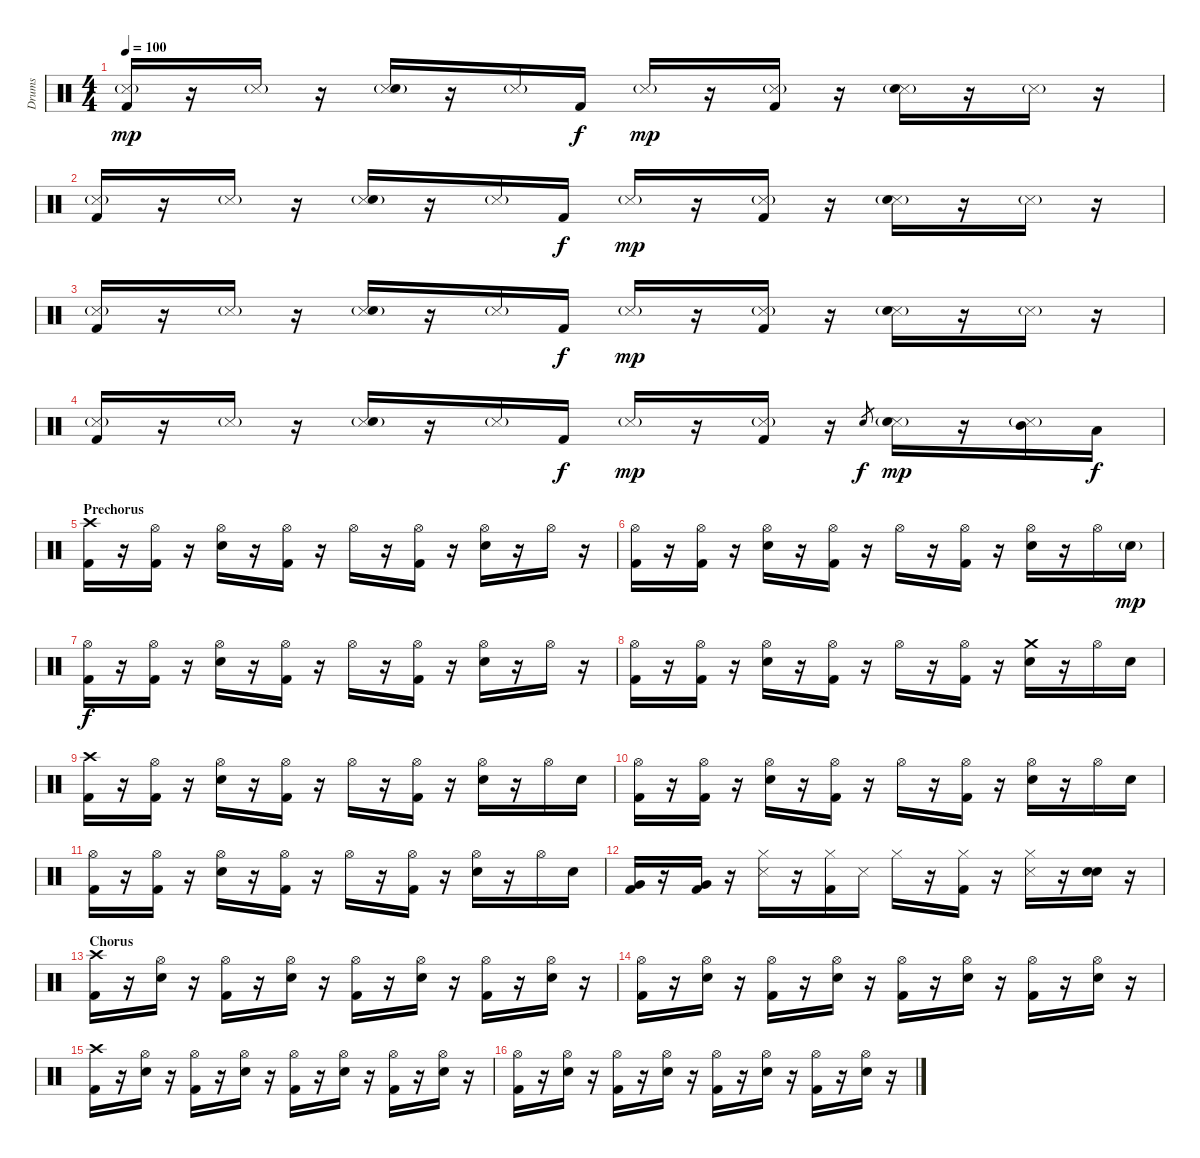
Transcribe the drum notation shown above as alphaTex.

\track ("Drums" "Drums") {instrument percussion}
\staff {score}
\articulation defaults
\ts (4 4)
\tempo 100
\clef neutral
\ks c
("Metronome (hit)"{g} "Kick (hit) 2").16{dy mp} r.16 "Metronome (hit)"{g}.16 r.16 ("Metronome (hit)"{g} "Electric Snare (hit)").16 r.16 "Metronome (hit)"{g}.16 "Kick (hit) 2".16{dy f} "Metronome (hit)"{g}.16{dy mp} r.16 ("Metronome (hit)"{g} "Kick (hit) 2").16 r.16 ("Metronome (hit)"{g} "Electric Snare (hit)").16 r.16 "Metronome (hit)"{g}.16 r.16 |
("Metronome (hit)"{g} "Kick (hit) 2").16 r.16 "Metronome (hit)"{g}.16 r.16 ("Metronome (hit)"{g} "Electric Snare (hit)").16 r.16 "Metronome (hit)"{g}.16 "Kick (hit) 2".16{dy f} "Metronome (hit)"{g}.16{dy mp} r.16 ("Metronome (hit)"{g} "Kick (hit) 2").16 r.16 ("Metronome (hit)"{g} "Electric Snare (hit)").16 r.16 "Metronome (hit)"{g}.16 r.16 |
("Metronome (hit)"{g} "Kick (hit) 2").16 r.16 "Metronome (hit)"{g}.16 r.16 ("Metronome (hit)"{g} "Electric Snare (hit)").16 r.16 "Metronome (hit)"{g}.16 "Kick (hit) 2".16{dy f} "Metronome (hit)"{g}.16{dy mp} r.16 ("Metronome (hit)"{g} "Kick (hit) 2").16 r.16 ("Metronome (hit)"{g} "Electric Snare (hit)").16 r.16 "Metronome (hit)"{g}.16 r.16 |
("Metronome (hit)"{g} "Kick (hit) 2").16 r.16 "Metronome (hit)"{g}.16 r.16 ("Metronome (hit)"{g} "Electric Snare (hit)").16 r.16 "Metronome (hit)"{g}.16 "Kick (hit) 2".16{dy f} "Metronome (hit)"{g}.16{dy mp} r.16 ("Metronome (hit)"{g} "Kick (hit) 2").16 r.16 "Electric Snare (hit)".8{gr dy f} ("Metronome (hit)"{g} "Electric Snare (hit)").16{dy mp} r.16 ("Metronome (hit)"{g} "Mid Tom (hit)").16 "Low Tom (hit)".16{dy f} |
\section ("" "Prechorus")
("Crash high (hit)" "Kick (hit) 2").16 r.16 ("Hi-Hat (open)" "Kick (hit) 2").16 r.16 ("Hi-Hat (open)" "Electric Snare (hit)").16 r.16 ("Hi-Hat (open)" "Kick (hit) 2").16 r.16 "Hi-Hat (open)".16 r.16 ("Hi-Hat (open)" "Kick (hit) 2").16 r.16 ("Hi-Hat (open)" "Electric Snare (hit)").16 r.16 "Hi-Hat (open)".16 r.16 |
("Hi-Hat (open)" "Kick (hit) 2").16 r.16 ("Hi-Hat (open)" "Kick (hit) 2").16 r.16 ("Hi-Hat (open)" "Electric Snare (hit)").16 r.16 ("Hi-Hat (open)" "Kick (hit) 2").16 r.16 "Hi-Hat (open)".16 r.16 ("Hi-Hat (open)" "Kick (hit) 2").16 r.16 ("Hi-Hat (open)" "Electric Snare (hit)").16 r.16 "Hi-Hat (open)".16 "Electric Snare (hit)"{g}.16{dy mp} |
("Hi-Hat (open)" "Kick (hit) 2").16{dy f} r.16 ("Hi-Hat (open)" "Kick (hit) 2").16 r.16 ("Hi-Hat (open)" "Electric Snare (hit)").16 r.16 ("Hi-Hat (open)" "Kick (hit) 2").16 r.16 "Hi-Hat (open)".16 r.16 ("Hi-Hat (open)" "Kick (hit) 2").16 r.16 ("Hi-Hat (open)" "Electric Snare (hit)").16 r.16 "Hi-Hat (open)".16 r.16 |
("Hi-Hat (open)" "Kick (hit) 2").16 r.16 ("Hi-Hat (open)" "Kick (hit) 2").16 r.16 ("Hi-Hat (open)" "Electric Snare (hit)").16 r.16 ("Hi-Hat (open)" "Kick (hit) 2").16 r.16 "Hi-Hat (open)".16 r.16 ("Hi-Hat (open)" "Kick (hit) 2").16 r.16 ("Crash medium (hit)" "Electric Snare (hit)").16 r.16 "Hi-Hat (open)".16 "Electric Snare (hit)".16 |
("Crash high (hit)" "Kick (hit) 2").16 r.16 ("Hi-Hat (open)" "Kick (hit) 2").16 r.16 ("Hi-Hat (open)" "Electric Snare (hit)").16 r.16 ("Hi-Hat (open)" "Kick (hit) 2").16 r.16 "Hi-Hat (open)".16 r.16 ("Hi-Hat (open)" "Kick (hit) 2").16 r.16 ("Hi-Hat (open)" "Electric Snare (hit)").16 r.16 "Hi-Hat (open)".16 "Electric Snare (hit)".16 |
("Hi-Hat (open)" "Kick (hit) 2").16 r.16 ("Hi-Hat (open)" "Kick (hit) 2").16 r.16 ("Hi-Hat (open)" "Electric Snare (hit)").16 r.16 ("Hi-Hat (open)" "Kick (hit) 2").16 r.16 "Hi-Hat (open)".16 r.16 ("Hi-Hat (open)" "Kick (hit) 2").16 r.16 ("Hi-Hat (open)" "Electric Snare (hit)").16 r.16 "Hi-Hat (open)".16 "Electric Snare (hit)".16 |
("Hi-Hat (open)" "Kick (hit) 2").16 r.16 ("Hi-Hat (open)" "Kick (hit) 2").16 r.16 ("Hi-Hat (open)" "Electric Snare (hit)").16 r.16 ("Hi-Hat (open)" "Kick (hit) 2").16 r.16 "Hi-Hat (open)".16 r.16 ("Hi-Hat (open)" "Kick (hit) 2").16 r.16 ("Hi-Hat (open)" "Electric Snare (hit)").16 r.16 "Hi-Hat (open)".16 "Electric Snare (hit)".16 |
("Very Low Tom (hit)" "Kick (hit) 2").16 r.16 ("Very Low Tom (hit)" "Kick (hit) 2").16 r.16 ("Hi-Hat (closed)" "Snare (side stick) 3").16 r.16 ("Hi-Hat (closed)" "Kick (hit) 2").16 "Snare (side stick) 3".16 "Hi-Hat (closed)".16 r.16 ("Hi-Hat (closed)" "Kick (hit) 2").16 r.16 ("Hi-Hat (closed)" "Snare (side stick) 3").16 r.16 ("Electric Snare (hit)" "Electric Snare (hit)").16{bd 120} r.16 |
\section ("" "Chorus")
("Crash high (hit)" "Kick (hit) 2").16 r.16 ("Hi-Hat (open)" "Electric Snare (hit)").16 r.16 ("Hi-Hat (open)" "Kick (hit) 2").16 r.16 ("Hi-Hat (open)" "Electric Snare (hit)").16 r.16 ("Hi-Hat (open)" "Kick (hit) 2").16 r.16 ("Hi-Hat (open)" "Electric Snare (hit)").16 r.16 ("Hi-Hat (open)" "Kick (hit) 2").16 r.16 ("Hi-Hat (open)" "Electric Snare (hit)").16 r.16 |
("Hi-Hat (open)" "Kick (hit) 2").16 r.16 ("Hi-Hat (open)" "Electric Snare (hit)").16 r.16 ("Hi-Hat (open)" "Kick (hit) 2").16 r.16 ("Hi-Hat (open)" "Electric Snare (hit)").16 r.16 ("Hi-Hat (open)" "Kick (hit) 2").16 r.16 ("Hi-Hat (open)" "Electric Snare (hit)").16 r.16 ("Hi-Hat (open)" "Kick (hit) 2").16 r.16 ("Hi-Hat (open)" "Electric Snare (hit)").16 r.16 |
("Crash high (hit)" "Kick (hit) 2").16 r.16 ("Hi-Hat (open)" "Electric Snare (hit)").16 r.16 ("Hi-Hat (open)" "Kick (hit) 2").16 r.16 ("Hi-Hat (open)" "Electric Snare (hit)").16 r.16 ("Hi-Hat (open)" "Kick (hit) 2").16 r.16 ("Hi-Hat (open)" "Electric Snare (hit)").16 r.16 ("Hi-Hat (open)" "Kick (hit) 2").16 r.16 ("Hi-Hat (open)" "Electric Snare (hit)").16 r.16 |
("Hi-Hat (open)" "Kick (hit) 2").16 r.16 ("Hi-Hat (open)" "Electric Snare (hit)").16 r.16 ("Hi-Hat (open)" "Kick (hit) 2").16 r.16 ("Hi-Hat (open)" "Electric Snare (hit)").16 r.16 ("Hi-Hat (open)" "Kick (hit) 2").16 r.16 ("Hi-Hat (open)" "Electric Snare (hit)").16 r.16 ("Hi-Hat (open)" "Kick (hit) 2").16 r.16 ("Hi-Hat (open)" "Electric Snare (hit)").16 r.16
